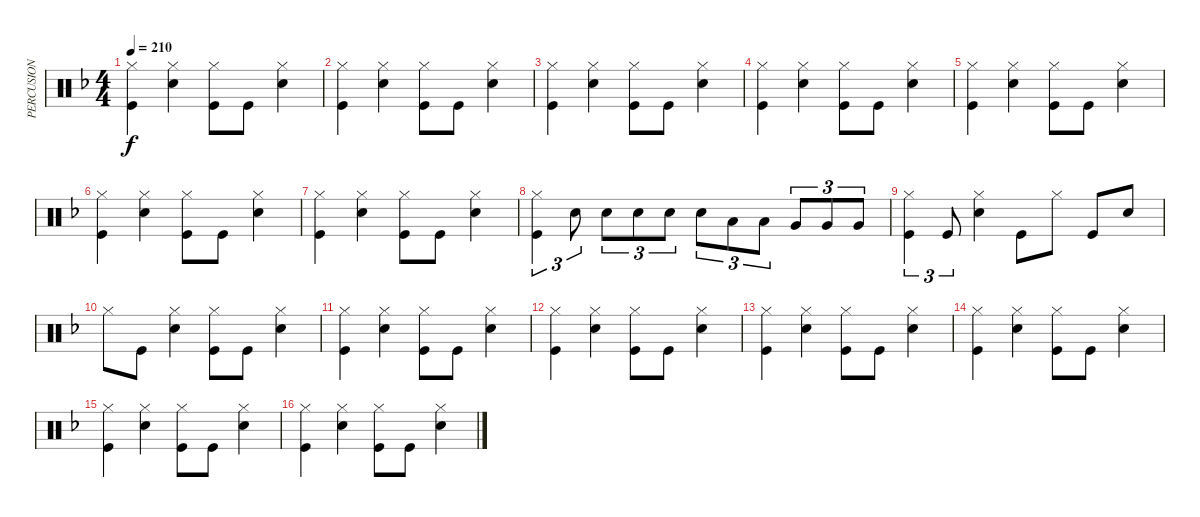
\track ("PERCUSION" "PERCUSION") {instrument percussion}
\staff {score}
\articulation defaults
\ts (4 4)
\tempo 210
\clef neutral
\ks f
("Hi-Hat (closed)" "Kick (hit)").4{dy f} ("Hi-Hat (closed)" "Snare (hit) 2").4 ("Hi-Hat (closed)" "Kick (hit)").8 "Kick (hit)".8 ("Hi-Hat (closed)" "Snare (hit) 2").4 |
("Hi-Hat (closed)" "Kick (hit)").4 ("Hi-Hat (closed)" "Snare (hit) 2").4 ("Hi-Hat (closed)" "Kick (hit)").8 "Kick (hit)".8 ("Hi-Hat (closed)" "Snare (hit) 2").4 |
("Hi-Hat (closed)" "Kick (hit)").4 ("Hi-Hat (closed)" "Snare (hit) 2").4 ("Hi-Hat (closed)" "Kick (hit)").8 "Kick (hit)".8 ("Hi-Hat (closed)" "Snare (hit) 2").4 |
("Hi-Hat (closed)" "Kick (hit)").4 ("Hi-Hat (closed)" "Snare (hit) 2").4 ("Hi-Hat (closed)" "Kick (hit)").8 "Kick (hit)".8 ("Hi-Hat (closed)" "Snare (hit) 2").4 |
("Hi-Hat (closed)" "Kick (hit)").4 ("Hi-Hat (closed)" "Snare (hit) 2").4 ("Hi-Hat (closed)" "Kick (hit)").8 "Kick (hit)".8 ("Hi-Hat (closed)" "Snare (hit) 2").4 |
("Hi-Hat (closed)" "Kick (hit)").4 ("Hi-Hat (closed)" "Snare (hit) 2").4 ("Hi-Hat (closed)" "Kick (hit)").8 "Kick (hit)".8 ("Hi-Hat (closed)" "Snare (hit) 2").4 |
("Hi-Hat (closed)" "Kick (hit)").4 ("Hi-Hat (closed)" "Snare (hit) 2").4 ("Hi-Hat (closed)" "Kick (hit)").8 "Kick (hit)".8 ("Hi-Hat (closed)" "Snare (hit) 2").4 |
("Hi-Hat (closed)" "Kick (hit)").4{tu (3 2)} "Snare (hit) 2".8{tu (3 2)} "Snare (hit) 2".8{tu (3 2)} "Snare (hit) 2".8{tu (3 2)} "Snare (hit) 2".8{tu (3 2)} "Snare (hit) 2".8{tu (3 2)} "Low Tom (hit)".8{tu (3 2)} "Low Tom (hit)".8{tu (3 2)} "Very Low Tom (hit)".8{tu (3 2)} "Very Low Tom (hit)".8{tu (3 2)} "Very Low Tom (hit)".8{tu (3 2)} |
("Hi-Hat (closed)" "Kick (hit)").4{tu (3 2)} "Kick (hit)".8{tu (3 2)} ("Hi-Hat (closed)" "Snare (hit) 2").4 "Kick (hit)".8 "Hi-Hat (closed)".8 "Kick (hit)".8 "Snare (hit) 2".8 |
"Hi-Hat (closed)".8 "Kick (hit)".8 ("Hi-Hat (closed)" "Snare (hit) 2").4 ("Hi-Hat (closed)" "Kick (hit)").8 "Kick (hit)".8 ("Hi-Hat (closed)" "Snare (hit) 2").4 |
("Hi-Hat (closed)" "Kick (hit)").4 ("Hi-Hat (closed)" "Snare (hit) 2").4 ("Hi-Hat (closed)" "Kick (hit)").8 "Kick (hit)".8 ("Hi-Hat (closed)" "Snare (hit) 2").4 |
("Hi-Hat (closed)" "Kick (hit)").4 ("Hi-Hat (closed)" "Snare (hit) 2").4 ("Hi-Hat (closed)" "Kick (hit)").8 "Kick (hit)".8 ("Hi-Hat (closed)" "Snare (hit) 2").4 |
("Hi-Hat (closed)" "Kick (hit)").4 ("Hi-Hat (closed)" "Snare (hit) 2").4 ("Hi-Hat (closed)" "Kick (hit)").8 "Kick (hit)".8 ("Hi-Hat (closed)" "Snare (hit) 2").4 |
("Hi-Hat (closed)" "Kick (hit)").4 ("Hi-Hat (closed)" "Snare (hit) 2").4 ("Hi-Hat (closed)" "Kick (hit)").8 "Kick (hit)".8 ("Hi-Hat (closed)" "Snare (hit) 2").4 |
("Hi-Hat (closed)" "Kick (hit)").4 ("Hi-Hat (closed)" "Snare (hit) 2").4 ("Hi-Hat (closed)" "Kick (hit)").8 "Kick (hit)".8 ("Hi-Hat (closed)" "Snare (hit) 2").4 |
("Hi-Hat (closed)" "Kick (hit)").4 ("Hi-Hat (closed)" "Snare (hit) 2").4 ("Hi-Hat (closed)" "Kick (hit)").8 "Kick (hit)".8 ("Hi-Hat (closed)" "Snare (hit) 2").4
